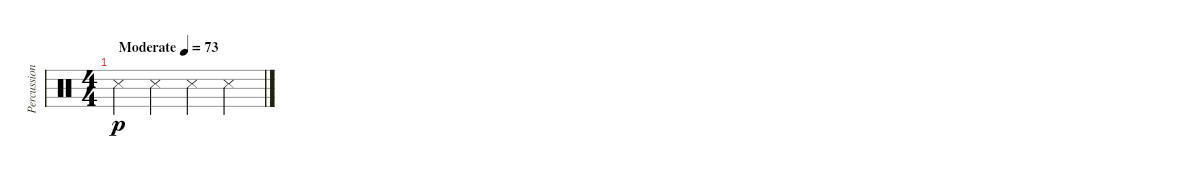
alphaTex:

\track ("Percussion" "Percussion") {instrument percussion}
\staff {score}
\articulation defaults
\ts (4 4)
\tempo (73 "Moderate")
\clef neutral
\ks c "Snare (side stick) 3".4{dy p} "Snare (side stick) 3".4 "Snare (side stick) 3".4 "Snare (side stick) 3".4
